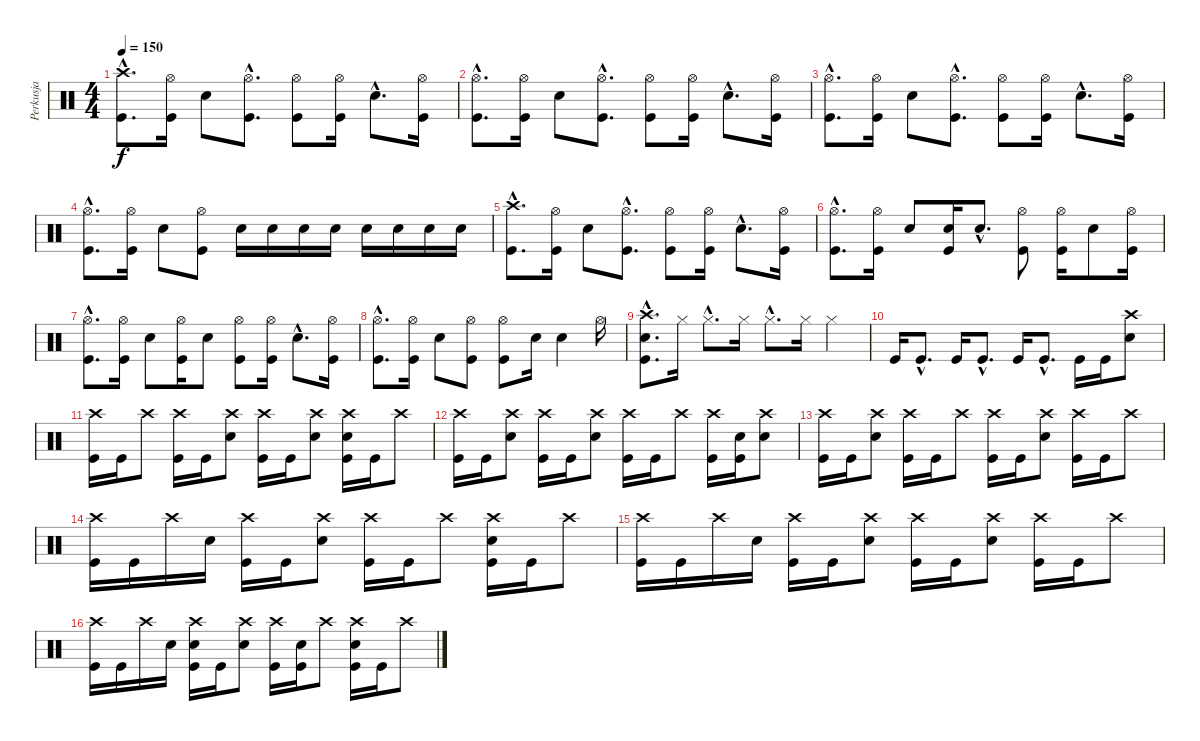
\track ("Perkusja" "Perkusja") {instrument percussion}
\staff {score}
\articulation defaults
\ts (4 4)
\tempo 150
\clef neutral
\ks c
("Crash high (hit)"{hac} "Kick (hit)"{hac}).8{d dy f} ("Hi-Hat (open)" "Kick (hit)").16 "Snare (hit) 2".8 ("Hi-Hat (open)"{hac} "Kick (hit)"{hac}).8{d} ("Hi-Hat (open)" "Kick (hit)").8 ("Hi-Hat (open)" "Kick (hit)").16 "Snare (hit) 2"{hac}.8{d} ("Hi-Hat (open)" "Kick (hit)").16 |
("Hi-Hat (open)"{hac} "Kick (hit)"{hac}).8{d} ("Hi-Hat (open)" "Kick (hit)").16 "Snare (hit) 2".8 ("Hi-Hat (open)"{hac} "Kick (hit)"{hac}).8{d} ("Hi-Hat (open)" "Kick (hit)").8 ("Hi-Hat (open)" "Kick (hit)").16 "Snare (hit) 2"{hac}.8{d} ("Hi-Hat (open)" "Kick (hit)").16 |
("Hi-Hat (open)"{hac} "Kick (hit)"{hac}).8{d} ("Hi-Hat (open)" "Kick (hit)").16 "Snare (hit) 2".8 ("Hi-Hat (open)"{hac} "Kick (hit)"{hac}).8{d} ("Hi-Hat (open)" "Kick (hit)").8 ("Hi-Hat (open)" "Kick (hit)").16 "Snare (hit) 2"{hac}.8{d} ("Hi-Hat (open)" "Kick (hit)").16 |
("Hi-Hat (open)"{hac} "Kick (hit)"{hac}).8{d} ("Hi-Hat (open)" "Kick (hit)").16 "Snare (hit) 2".8 ("Hi-Hat (open)" "Kick (hit)").8 "Snare (hit) 2".16 "Snare (hit) 2".16 "Snare (hit) 2".16 "Snare (hit) 2".16 "Snare (hit) 2".16 "Snare (hit) 2".16 "Snare (hit) 2".16 "Snare (hit) 2".16 |
("Crash high (hit)"{hac} "Kick (hit)"{hac}).8{d} ("Hi-Hat (open)" "Kick (hit)").16 "Snare (hit) 2".8 ("Hi-Hat (open)"{hac} "Kick (hit)"{hac}).8{d} ("Hi-Hat (open)" "Kick (hit)").8 ("Hi-Hat (open)" "Kick (hit)").16 "Snare (hit) 2"{hac}.8{d} ("Hi-Hat (open)" "Kick (hit)").16 |
("Hi-Hat (open)"{hac} "Kick (hit)"{hac}).8{d} ("Hi-Hat (open)" "Kick (hit)").16 "Snare (hit) 2".8 ("Snare (hit) 2" "Kick (hit)").16 "Snare (hit) 2"{hac}.8{d} ("Hi-Hat (open)" "Kick (hit)").8 ("Hi-Hat (open)" "Kick (hit)").16 "Snare (hit) 2".8 ("Hi-Hat (open)" "Kick (hit)").16 |
("Hi-Hat (open)"{hac} "Kick (hit)"{hac}).8{d} ("Hi-Hat (open)" "Kick (hit)").16 "Snare (hit) 2".8 ("Hi-Hat (open)" "Kick (hit)").16 "Snare (hit) 2".8 ("Hi-Hat (open)" "Kick (hit)").8 ("Hi-Hat (open)" "Kick (hit)").16 "Snare (hit) 2"{hac}.8{d} ("Hi-Hat (open)" "Kick (hit)").16 |
("Hi-Hat (open)"{hac} "Kick (hit)"{hac}).8{d} ("Hi-Hat (open)" "Kick (hit)").16 "Snare (hit) 2".8 ("Hi-Hat (open)" "Kick (hit)").8 ("Hi-Hat (open)" "Kick (hit)").8 "Snare (hit) 2".16 "Snare (hit) 2".4 "Hi-Hat (open)".16 |
("Crash high (hit)"{hac} "Snare (hit) 2"{hac} "Kick (hit)"{hac}).8{d} "Hi-Hat (closed)".16 "Hi-Hat (closed)"{hac}.8{d} "Hi-Hat (closed)".16 "Hi-Hat (closed)"{hac}.8{d} "Hi-Hat (closed)".16 "Hi-Hat (closed)".4 |
"Kick (hit)".16 "Kick (hit)"{hac}.8{d} "Kick (hit)".16 "Kick (hit)"{hac}.8{d} "Kick (hit)".16 "Kick (hit)"{hac}.8{d} "Kick (hit)".16 "Kick (hit)".16 ("Crash high (hit)" "Snare (hit) 2").8 |
("Crash high (hit)" "Kick (hit)").16 "Kick (hit)".16 "Crash high (hit)".8 ("Crash high (hit)" "Kick (hit)").16 "Kick (hit)".16 ("Crash high (hit)" "Snare (hit) 2").8 ("Crash high (hit)" "Kick (hit)").16 "Kick (hit)".16 ("Crash high (hit)" "Snare (hit) 2").8 ("Crash high (hit)" "Snare (hit) 2" "Kick (hit)").16 "Kick (hit)".16 "Crash high (hit)".8 |
("Crash high (hit)" "Kick (hit)").16 "Kick (hit)".16 ("Crash high (hit)" "Snare (hit) 2").8 ("Crash high (hit)" "Kick (hit)").16 "Kick (hit)".16 ("Crash high (hit)" "Snare (hit) 2").8 ("Crash high (hit)" "Kick (hit)").16 "Kick (hit)".16 "Crash high (hit)".8 ("Crash high (hit)" "Kick (hit)").16 ("Snare (hit) 2" "Kick (hit)").16 ("Crash high (hit)" "Snare (hit) 2").8 |
("Crash high (hit)" "Kick (hit)").16 "Kick (hit)".16 ("Crash high (hit)" "Snare (hit) 2").8 ("Crash high (hit)" "Kick (hit)").16 "Kick (hit)".16 "Crash high (hit)".8 ("Crash high (hit)" "Kick (hit)").16 "Kick (hit)".16 ("Crash high (hit)" "Snare (hit) 2").8 ("Crash high (hit)" "Kick (hit)").16 "Kick (hit)".16 "Crash high (hit)".8 |
("Crash high (hit)" "Kick (hit)").16 "Kick (hit)".16 "Crash high (hit)".16 "Snare (hit) 2".16 ("Crash high (hit)" "Kick (hit)").16 "Kick (hit)".16 ("Crash high (hit)" "Snare (hit) 2").8 ("Crash high (hit)" "Kick (hit)").16 "Kick (hit)".16 "Crash high (hit)".8 ("Crash high (hit)" "Snare (hit) 2" "Kick (hit)").16 "Kick (hit)".16 "Crash high (hit)".8 |
("Crash high (hit)" "Kick (hit)").16 "Kick (hit)".16 "Crash high (hit)".16 "Snare (hit) 2".16 ("Crash high (hit)" "Kick (hit)").16 "Kick (hit)".16 ("Crash high (hit)" "Snare (hit) 2").8 ("Crash high (hit)" "Kick (hit)").16 "Kick (hit)".16 ("Crash high (hit)" "Snare (hit) 2").8 ("Crash high (hit)" "Kick (hit)").16 "Kick (hit)".16 "Crash high (hit)".8 |
("Crash high (hit)" "Kick (hit)").16 "Kick (hit)".16 "Crash high (hit)".16 "Snare (hit) 2".16 ("Crash high (hit)" "Snare (hit) 2" "Kick (hit)").16 "Kick (hit)".16 ("Crash high (hit)" "Snare (hit) 2").8 ("Crash high (hit)" "Kick (hit)").16 ("Snare (hit) 2" "Kick (hit)").16 "Crash high (hit)".8 ("Crash high (hit)" "Snare (hit) 2" "Kick (hit)").16 "Kick (hit)".16 "Crash high (hit)".8
